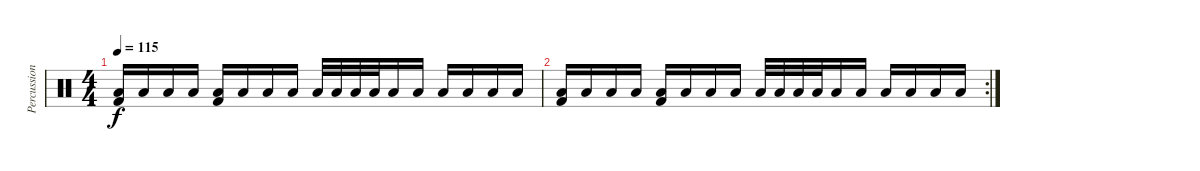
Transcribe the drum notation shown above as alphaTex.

\track ("Percussions" "Percussion") {instrument percussion}
\staff {score}
\articulation defaults
\ts (4 4)
\tempo 115
\clef neutral
\ks c
("Kick (hit) 2" "Low Floor Tom (hit)").16{dy f} "Low Floor Tom (hit)".16 "Low Floor Tom (hit)".16 "Low Floor Tom (hit)".16 ("Kick (hit) 2" "Low Floor Tom (hit)").16 "Low Floor Tom (hit)".16 "Low Floor Tom (hit)".16 "Low Floor Tom (hit)".16 "Low Floor Tom (hit)".32 "Low Floor Tom (hit)".32 "Low Floor Tom (hit)".32 "Low Floor Tom (hit)".32 "Low Floor Tom (hit)".16 "Low Floor Tom (hit)".16 "Low Floor Tom (hit)".16 "Low Floor Tom (hit)".16 "Low Floor Tom (hit)".16 "Low Floor Tom (hit)".16 |
\rc 2
("Kick (hit) 2" "Low Floor Tom (hit)").16 "Low Floor Tom (hit)".16 "Low Floor Tom (hit)".16 "Low Floor Tom (hit)".16 ("Kick (hit) 2" "Low Floor Tom (hit)").16 "Low Floor Tom (hit)".16 "Low Floor Tom (hit)".16 "Low Floor Tom (hit)".16 "Low Floor Tom (hit)".32 "Low Floor Tom (hit)".32 "Low Floor Tom (hit)".32 "Low Floor Tom (hit)".32 "Low Floor Tom (hit)".16 "Low Floor Tom (hit)".16 "Low Floor Tom (hit)".16 "Low Floor Tom (hit)".16 "Low Floor Tom (hit)".16 "Low Floor Tom (hit)".16
